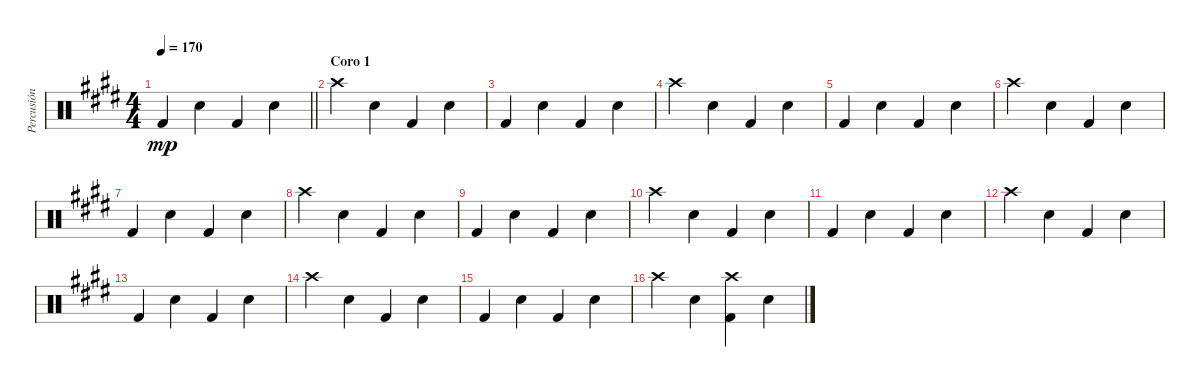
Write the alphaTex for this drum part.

\track ("Percusión" "Percusión") {instrument percussion}
\staff {score}
\articulation defaults
\ts (4 4)
\tempo 170
\clef neutral
\barLineRight lightlight
\ks e "Kick (hit) 2".4{dy mp} "Snare (hit) 2".4 "Kick (hit) 2".4 "Snare (hit) 2".4
|
\section ("" "Coro 1")
"Crash high (hit)".4 "Snare (hit) 2".4 "Kick (hit) 2".4 "Snare (hit) 2".4 |
"Kick (hit) 2".4 "Snare (hit) 2".4 "Kick (hit) 2".4 "Snare (hit) 2".4 |
"Crash high (hit)".4 "Snare (hit) 2".4 "Kick (hit) 2".4 "Snare (hit) 2".4 |
"Kick (hit) 2".4 "Snare (hit) 2".4 "Kick (hit) 2".4 "Snare (hit) 2".4 |
"Crash high (hit)".4 "Snare (hit) 2".4 "Kick (hit) 2".4 "Snare (hit) 2".4 |
"Kick (hit) 2".4 "Snare (hit) 2".4 "Kick (hit) 2".4 "Snare (hit) 2".4 |
"Crash high (hit)".4 "Snare (hit) 2".4 "Kick (hit) 2".4 "Snare (hit) 2".4 |
"Kick (hit) 2".4 "Snare (hit) 2".4 "Kick (hit) 2".4 "Snare (hit) 2".4 |
"Crash high (hit)".4 "Snare (hit) 2".4 "Kick (hit) 2".4 "Snare (hit) 2".4 |
"Kick (hit) 2".4 "Snare (hit) 2".4 "Kick (hit) 2".4 "Snare (hit) 2".4 |
"Crash high (hit)".4 "Snare (hit) 2".4 "Kick (hit) 2".4 "Snare (hit) 2".4 |
"Kick (hit) 2".4 "Snare (hit) 2".4 "Kick (hit) 2".4 "Snare (hit) 2".4 |
"Crash high (hit)".4 "Snare (hit) 2".4 "Kick (hit) 2".4 "Snare (hit) 2".4 |
"Kick (hit) 2".4 "Snare (hit) 2".4 "Kick (hit) 2".4 "Snare (hit) 2".4 |
"Crash high (hit)".4 "Snare (hit) 2".4 ("Kick (hit) 2" "Crash high (hit)").4 "Snare (hit) 2".4
